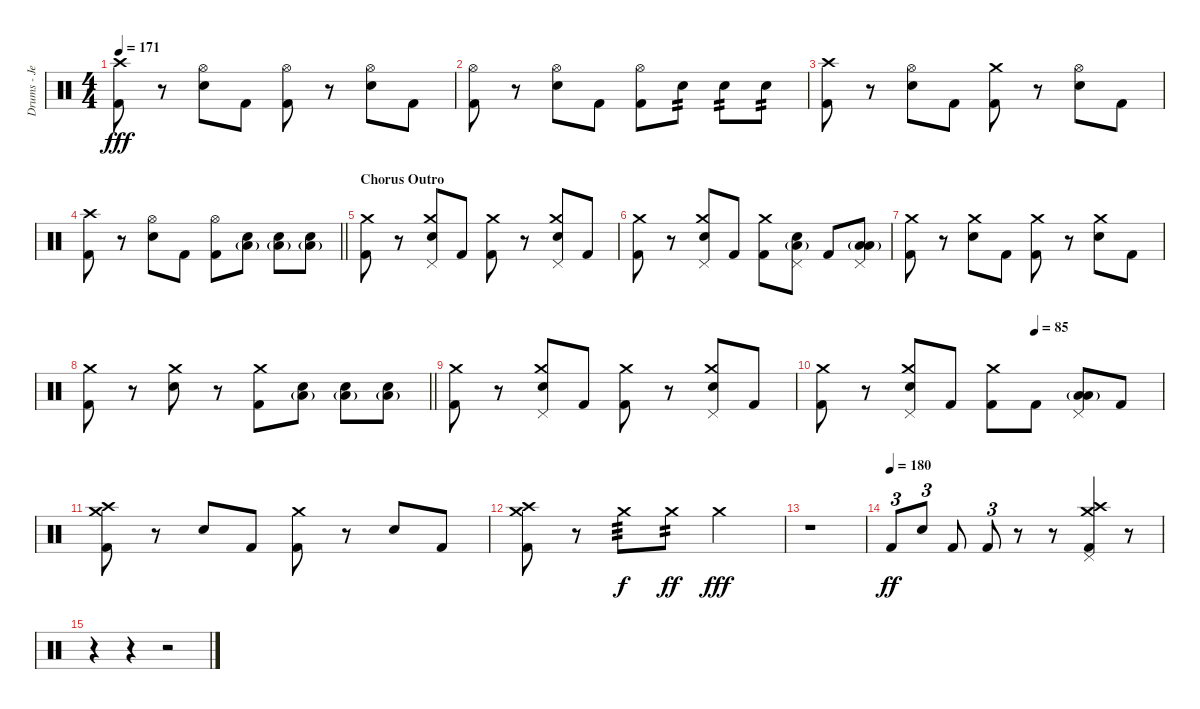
\track ("Drums - Jerinx" "Drums - Je") {instrument percussion}
\staff {score}
\articulation defaults
\ts (4 4)
\tempo 171
\clef neutral
\ks c
("Kick (hit) 2" "Crash high (hit)").8{dy fff} r.8 ("Hi-Hat (open)" "Snare (hit) 2").8 "Kick (hit) 2".8 ("Hi-Hat (open)" "Kick (hit) 2").8 r.8 ("Hi-Hat (open)" "Snare (hit) 2").8 "Kick (hit) 2".8 |
("Hi-Hat (open)" "Kick (hit) 2").8 r.8 ("Hi-Hat (open)" "Snare (hit) 2").8 "Kick (hit) 2".8 ("Hi-Hat (open)" "Kick (hit) 2").8 "Snare (hit) 2".8{tp 2} "Snare (hit) 2".8{tp 2} "Snare (hit) 2".8{tp 2} |
("Kick (hit) 2" "Crash high (hit)").8 r.8 ("Hi-Hat (open)" "Snare (hit) 2").8 "Kick (hit) 2".8 ("Kick (hit) 2" "Crash medium (hit)").8 r.8 ("Hi-Hat (open)" "Snare (hit) 2").8 "Kick (hit) 2".8 |
\barLineRight lightlight
("Kick (hit) 2" "Crash high (hit)").8 r.8 ("Hi-Hat (open)" "Snare (hit) 2").8 "Kick (hit) 2".8 ("Hi-Hat (open)" "Kick (hit) 2").8 ("Snare (hit) 2" "Low Floor Tom (hit)"{g}).8 ("Snare (hit) 2" "Low Floor Tom (hit)"{g}).8 ("Snare (hit) 2" "Low Floor Tom (hit)"{g}).8 |
\section ("" "Chorus Outro")
("Kick (hit) 2" "Crash medium (hit)").8 r.8 ("Pedal Hi-Hat (hit)" "Snare (hit) 2" "Crash medium (hit)").8 "Kick (hit) 2".8 ("Kick (hit) 2" "Crash medium (hit)").8 r.8 ("Pedal Hi-Hat (hit)" "Snare (hit) 2" "Crash medium (hit)").8 "Kick (hit) 2".8 |
("Kick (hit) 2" "Crash medium (hit)").8 r.8 ("Pedal Hi-Hat (hit)" "Snare (hit) 2" "Crash medium (hit)").8 "Kick (hit) 2".8 ("Kick (hit) 2" "Crash medium (hit)").8 ("Pedal Hi-Hat (hit)" "Snare (hit) 2" "Low Floor Tom (hit)"{g}).8 "Kick (hit) 2".8 ("Pedal Hi-Hat (hit)" "Low Tom (hit)" "Low Floor Tom (hit)"{g}).8 |
("Kick (hit) 2" "Crash medium (hit)").8 r.8 ("Snare (hit) 2" "Crash medium (hit)").8 "Kick (hit) 2".8 ("Kick (hit) 2" "Crash medium (hit)").8 r.8 ("Snare (hit) 2" "Crash medium (hit)").8 "Kick (hit) 2".8 |
\barLineRight lightlight
("Kick (hit) 2" "Crash medium (hit)").8 r.8 ("Snare (hit) 2" "Crash medium (hit)").8 r.8 ("Kick (hit) 2" "Crash medium (hit)").8 ("Snare (hit) 2" "Low Floor Tom (hit)"{g}).8 ("Snare (hit) 2" "Low Floor Tom (hit)"{g}).8 ("Snare (hit) 2" "Low Floor Tom (hit)"{g}).8 |
("Kick (hit) 2" "Crash medium (hit)").8 r.8 ("Pedal Hi-Hat (hit)" "Snare (hit) 2" "Crash medium (hit)").8 "Kick (hit) 2".8 ("Kick (hit) 2" "Crash medium (hit)").8 r.8 ("Pedal Hi-Hat (hit)" "Snare (hit) 2" "Crash medium (hit)").8 "Kick (hit) 2".8 |
\tempo (85 0.625)
("Kick (hit) 2" "Crash medium (hit)").8 r.8 ("Pedal Hi-Hat (hit)" "Snare (hit) 2" "Crash medium (hit)").8 "Kick (hit) 2".8 ("Kick (hit) 2" "Crash medium (hit)").8 "Kick (hit) 2".8 ("Pedal Hi-Hat (hit)" "Low Tom (hit)" "Low Floor Tom (hit)"{g}).8 "Kick (hit) 2".8 |
("Kick (hit) 2" "Crash high (hit)" "Crash medium (hit)").8 r.8 "Snare (hit) 2".8 "Kick (hit) 2".8 ("Kick (hit) 2" "Crash medium (hit)").8 r.8 "Snare (hit) 2".8 "Kick (hit) 2".8 |
("Kick (hit) 2" "Crash high (hit)" "Crash medium (hit)").8 r.8 "Crash medium (hit)".8{tp 3 dy f} "Crash medium (hit)".8{tp 2 dy ff} "Crash medium (hit)".2{dy fff} |
r.1 |
\tempo (180)
"Kick (hit) 2".8{tu (3 2) dy ff} "Snare (hit) 2".8{tu (3 2)} "Kick (hit) 2".8 "Kick (hit) 2".8{tu (3 2)} r.8 r.8 ("Pedal Hi-Hat (hit)" "Kick (hit) 2" "Crash high (hit)" "Crash medium (hit)").4 r.8 |
r.4{volume 2} r.4 r.2
